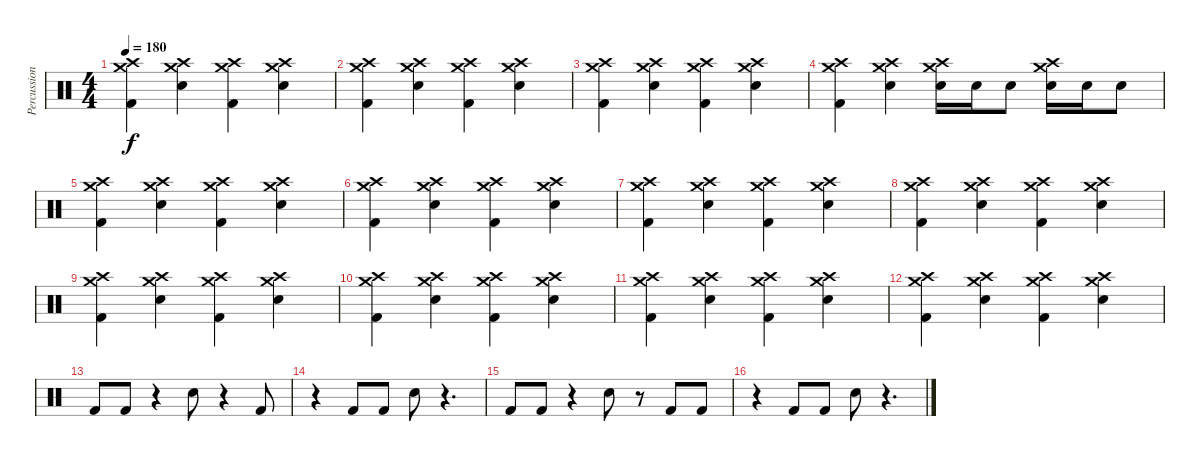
\track ("Percussions" "Percussion") {instrument percussion}
\staff {score}
\articulation defaults
\ts (4 4)
\tempo 180
\clef neutral
\ks c
("Crash high (hit)" "Crash medium (hit)" "Kick (hit) 2").4{dy f} ("Crash high (hit)" "Crash medium (hit)" "Snare (hit) 2").4 ("Crash high (hit)" "Crash medium (hit)" "Kick (hit) 2").4 ("Crash high (hit)" "Crash medium (hit)" "Snare (hit) 2").4 |
("Crash high (hit)" "Crash medium (hit)" "Kick (hit) 2").4 ("Crash high (hit)" "Crash medium (hit)" "Snare (hit) 2").4 ("Crash high (hit)" "Crash medium (hit)" "Kick (hit) 2").4 ("Crash high (hit)" "Crash medium (hit)" "Snare (hit) 2").4 |
("Crash high (hit)" "Crash medium (hit)" "Kick (hit) 2").4 ("Crash high (hit)" "Crash medium (hit)" "Snare (hit) 2").4 ("Crash high (hit)" "Crash medium (hit)" "Kick (hit) 2").4 ("Crash high (hit)" "Crash medium (hit)" "Snare (hit) 2").4 |
("Crash high (hit)" "Crash medium (hit)" "Kick (hit) 2").4 ("Crash high (hit)" "Crash medium (hit)" "Snare (hit) 2").4 ("Crash high (hit)" "Crash medium (hit)" "Snare (hit) 2").16 "Snare (hit) 2".16 "Snare (hit) 2".8 ("Crash high (hit)" "Crash medium (hit)" "Snare (hit) 2").16 "Snare (hit) 2".16 "Snare (hit) 2".8 |
("Crash high (hit)" "Crash medium (hit)" "Kick (hit) 2").4 ("Crash high (hit)" "Crash medium (hit)" "Snare (hit) 2").4 ("Crash high (hit)" "Crash medium (hit)" "Kick (hit) 2").4 ("Crash high (hit)" "Crash medium (hit)" "Snare (hit) 2").4 |
("Crash high (hit)" "Crash medium (hit)" "Kick (hit) 2").4 ("Crash high (hit)" "Crash medium (hit)" "Snare (hit) 2").4 ("Crash high (hit)" "Crash medium (hit)" "Kick (hit) 2").4 ("Crash high (hit)" "Crash medium (hit)" "Snare (hit) 2").4 |
("Crash high (hit)" "Crash medium (hit)" "Kick (hit) 2").4 ("Crash high (hit)" "Crash medium (hit)" "Snare (hit) 2").4 ("Crash high (hit)" "Crash medium (hit)" "Kick (hit) 2").4 ("Crash high (hit)" "Crash medium (hit)" "Snare (hit) 2").4 |
("Crash high (hit)" "Crash medium (hit)" "Kick (hit) 2").4 ("Crash high (hit)" "Crash medium (hit)" "Snare (hit) 2").4 ("Crash high (hit)" "Crash medium (hit)" "Kick (hit) 2").4 ("Crash high (hit)" "Crash medium (hit)" "Snare (hit) 2").4 |
("Crash high (hit)" "Crash medium (hit)" "Kick (hit) 2").4 ("Crash high (hit)" "Crash medium (hit)" "Snare (hit) 2").4 ("Crash high (hit)" "Crash medium (hit)" "Kick (hit) 2").4 ("Crash high (hit)" "Crash medium (hit)" "Snare (hit) 2").4 |
("Crash high (hit)" "Crash medium (hit)" "Kick (hit) 2").4 ("Crash high (hit)" "Crash medium (hit)" "Snare (hit) 2").4 ("Crash high (hit)" "Crash medium (hit)" "Kick (hit) 2").4 ("Crash high (hit)" "Crash medium (hit)" "Snare (hit) 2").4 |
("Crash high (hit)" "Crash medium (hit)" "Kick (hit) 2").4 ("Crash high (hit)" "Crash medium (hit)" "Snare (hit) 2").4 ("Crash high (hit)" "Crash medium (hit)" "Kick (hit) 2").4 ("Crash high (hit)" "Crash medium (hit)" "Snare (hit) 2").4 |
("Crash high (hit)" "Crash medium (hit)" "Kick (hit) 2").4 ("Crash high (hit)" "Crash medium (hit)" "Snare (hit) 2").4 ("Crash high (hit)" "Crash medium (hit)" "Kick (hit) 2").4 ("Crash high (hit)" "Crash medium (hit)" "Snare (hit) 2").4 |
"Kick (hit) 2".8 "Kick (hit) 2".8 r.4 "Snare (hit) 2".8 r.4 "Kick (hit) 2".8 |
r.4 "Kick (hit) 2".8 "Kick (hit) 2".8 "Snare (hit) 2".8 r.4{d} |
"Kick (hit) 2".8 "Kick (hit) 2".8 r.4 "Snare (hit) 2".8 r.8 "Kick (hit) 2".8 "Kick (hit) 2".8 |
r.4 "Kick (hit) 2".8 "Kick (hit) 2".8 "Snare (hit) 2".8 r.4{d}
